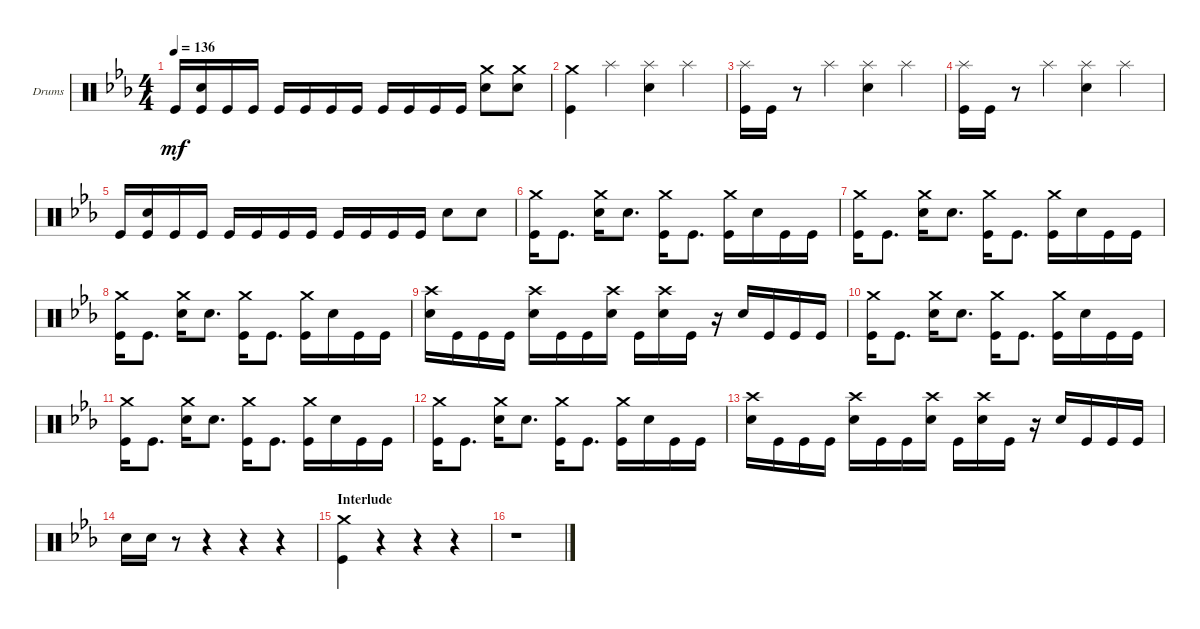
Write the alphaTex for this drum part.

\defaultSystemsLayout 4
\bracketExtendMode groupsimilarinstruments
\firstSystemTrackNameOrientation horizontal
\otherSystemsTrackNameOrientation horizontal
\track ("Drumkit" "Drums") {instrument percussion}
\staff {score}
\articulation defaults
\ts (4 4)
\tempo 136
\clef neutral
\scale
0.333333
\ks cminor "Kick (hit)".16{dy mf}
("Kick (hit)" "Snare (hit) 2").16 "Kick (hit)".16 "Kick (hit)".16 "Kick (hit)".16 "Kick (hit)".16 "Kick (hit)".16 "Kick (hit)".16 "Kick (hit)".16 "Kick (hit)".16 "Kick (hit)".16 "Kick (hit)".16 ("Snare (hit) 2" "Crash medium (hit)").8 ("Snare (hit) 2" "Crash medium (hit)").8 |
\scale
0.333333 ("Kick (hit)" "Crash medium (hit)").4 "Splash (hit)".4 ("Snare (hit) 2" "Splash (hit)").4 "Splash (hit)".4 |
\scale
0.333333 ("Kick (hit)" "Splash (hit)").16 "Kick (hit)".16 r.8 "Splash (hit)".4 ("Snare (hit) 2" "Splash (hit)").4 "Splash (hit)".4 |
\scale
0.333333 ("Kick (hit)" "Splash (hit)").16 "Kick (hit)".16 r.8 "Splash (hit)".4 ("Snare (hit) 2" "Splash (hit)").4 "Splash (hit)".4 |
\scale
0.333333 "Kick (hit)".16 ("Kick (hit)" "Snare (hit) 2").16 "Kick (hit)".16 "Kick (hit)".16 "Kick (hit)".16 "Kick (hit)".16 "Kick (hit)".16 "Kick (hit)".16 "Kick (hit)".16 "Kick (hit)".16 "Kick (hit)".16 "Kick (hit)".16 "Snare (hit) 2".8 "Snare (hit) 2".8 |
\scale
0.333333 ("Kick (hit)" "Crash medium (hit)").16 "Kick (hit)".8{d} ("Snare (hit) 2" "Crash medium (hit)").16 "Snare (hit) 2".8{d} ("Kick (hit)" "Crash medium (hit)").16 "Kick (hit)".8{d} ("Kick (hit)" "Crash medium (hit)").16 "Snare (hit) 2".16 "Kick (hit)".16 "Kick (hit)".16 |
\scale
0.333333 ("Kick (hit)" "Crash medium (hit)").16 "Kick (hit)".8{d} ("Snare (hit) 2" "Crash medium (hit)").16 "Snare (hit) 2".8{d} ("Kick (hit)" "Crash medium (hit)").16 "Kick (hit)".8{d} ("Kick (hit)" "Crash medium (hit)").16 "Snare (hit) 2".16 "Kick (hit)".16 "Kick (hit)".16 |
\scale
0.333333 ("Kick (hit)" "Crash medium (hit)").16 "Kick (hit)".8{d} ("Snare (hit) 2" "Crash medium (hit)").16 "Snare (hit) 2".8{d} ("Kick (hit)" "Crash medium (hit)").16 "Kick (hit)".8{d} ("Kick (hit)" "Crash medium (hit)").16 "Snare (hit) 2".16 "Kick (hit)".16 "Kick (hit)".16 |
\scale
0.333333 ("Snare (hit) 2" "Crash high (hit)").16 "Kick (hit)".16 "Kick (hit)".16 "Kick (hit)".16 ("Snare (hit) 2" "Crash high (hit)").16 "Kick (hit)".16 "Kick (hit)".16 ("Snare (hit) 2" "Crash high (hit)").16 "Kick (hit)".16 ("Snare (hit) 2" "Crash high (hit)").16 "Kick (hit)".16 r.16 "Snare (hit) 2".16 "Kick (hit)".16 "Kick (hit)".16 "Kick (hit)".16 |
\scale
0.333333 ("Kick (hit)" "Crash medium (hit)").16 "Kick (hit)".8{d} ("Snare (hit) 2" "Crash medium (hit)").16 "Snare (hit) 2".8{d} ("Kick (hit)" "Crash medium (hit)").16 "Kick (hit)".8{d} ("Kick (hit)" "Crash medium (hit)").16 "Snare (hit) 2".16 "Kick (hit)".16 "Kick (hit)".16 |
\scale
0.333333 ("Kick (hit)" "Crash medium (hit)").16 "Kick (hit)".8{d} ("Snare (hit) 2" "Crash medium (hit)").16 "Snare (hit) 2".8{d} ("Kick (hit)" "Crash medium (hit)").16 "Kick (hit)".8{d} ("Kick (hit)" "Crash medium (hit)").16 "Snare (hit) 2".16 "Kick (hit)".16 "Kick (hit)".16 |
\scale
0.333333 ("Kick (hit)" "Crash medium (hit)").16 "Kick (hit)".8{d} ("Snare (hit) 2" "Crash medium (hit)").16 "Snare (hit) 2".8{d} ("Kick (hit)" "Crash medium (hit)").16 "Kick (hit)".8{d} ("Kick (hit)" "Crash medium (hit)").16 "Snare (hit) 2".16 "Kick (hit)".16 "Kick (hit)".16 |
\scale
0.333333 ("Snare (hit) 2" "Crash high (hit)").16 "Kick (hit)".16 "Kick (hit)".16 "Kick (hit)".16 ("Snare (hit) 2" "Crash high (hit)").16 "Kick (hit)".16 "Kick (hit)".16 ("Snare (hit) 2" "Crash high (hit)").16 "Kick (hit)".16 ("Snare (hit) 2" "Crash high (hit)").16 "Kick (hit)".16 r.16 "Snare (hit) 2".16 "Kick (hit)".16 "Kick (hit)".16 "Kick (hit)".16 |
"Snare (hit) 2".16 "Snare (hit) 2".16 r.8 r.4 r.4 r.4 |
\section ("" "Interlude")
("Kick (hit)" "Crash medium (hit)").4 r.4 r.4 r.4 |
r.1
